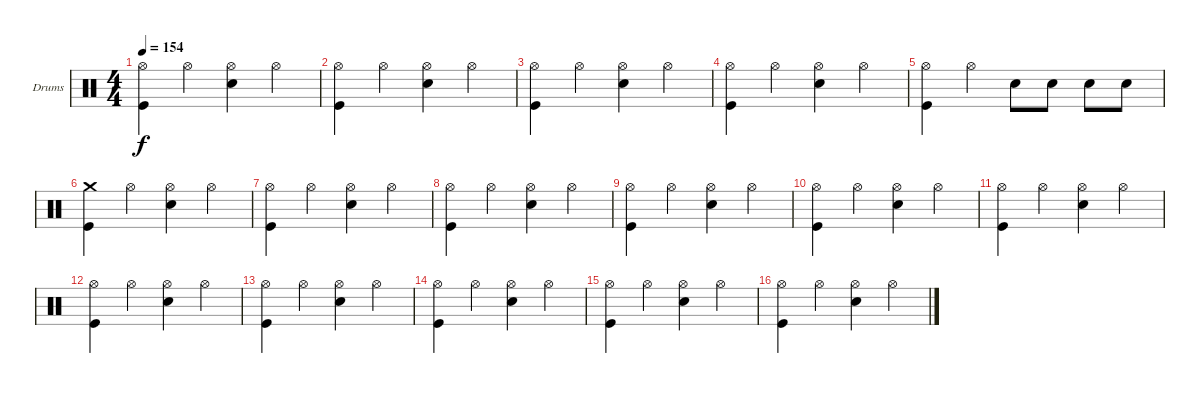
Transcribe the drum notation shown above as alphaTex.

\bracketExtendMode groupsimilarinstruments
\firstSystemTrackNameOrientation horizontal
\otherSystemsTrackNameOrientation horizontal
\track ("Drumkit (Christoph)" "Drums") {instrument percussion}
\staff {score}
\articulation defaults
\ts (4 4)
\tempo 154
\clef neutral
\ks c
("Hi-Hat (open)" "Kick (hit)").4{dy f} "Hi-Hat (open)".4 ("Hi-Hat (open)" "Snare (hit) 2").4 "Hi-Hat (open)".4 |
("Hi-Hat (open)" "Kick (hit)").4 "Hi-Hat (open)".4 ("Hi-Hat (open)" "Snare (hit) 2").4 "Hi-Hat (open)".4 |
("Hi-Hat (open)" "Kick (hit)").4 "Hi-Hat (open)".4 ("Hi-Hat (open)" "Snare (hit) 2").4 "Hi-Hat (open)".4 |
("Hi-Hat (open)" "Kick (hit)").4 "Hi-Hat (open)".4 ("Hi-Hat (open)" "Snare (hit) 2").4 "Hi-Hat (open)".4 |
("Hi-Hat (open)" "Kick (hit)").4 "Hi-Hat (open)".4 "Snare (hit) 2".8 "Snare (hit) 2".8 "Snare (hit) 2".8 "Snare (hit) 2".8 |
("Crash medium (hit)" "Kick (hit)").4 "Hi-Hat (open)".4 ("Hi-Hat (open)" "Snare (hit) 2").4 "Hi-Hat (open)".4 |
("Hi-Hat (open)" "Kick (hit)").4 "Hi-Hat (open)".4 ("Hi-Hat (open)" "Snare (hit) 2").4 "Hi-Hat (open)".4 |
("Hi-Hat (open)" "Kick (hit)").4 "Hi-Hat (open)".4 ("Hi-Hat (open)" "Snare (hit) 2").4 "Hi-Hat (open)".4 |
("Hi-Hat (open)" "Kick (hit)").4 "Hi-Hat (open)".4 ("Hi-Hat (open)" "Snare (hit) 2").4 "Hi-Hat (open)".4 |
("Hi-Hat (open)" "Kick (hit)").4 "Hi-Hat (open)".4 ("Hi-Hat (open)" "Snare (hit) 2").4 "Hi-Hat (open)".4 |
("Hi-Hat (open)" "Kick (hit)").4 "Hi-Hat (open)".4 ("Hi-Hat (open)" "Snare (hit) 2").4 "Hi-Hat (open)".4 |
("Hi-Hat (open)" "Kick (hit)").4 "Hi-Hat (open)".4 ("Hi-Hat (open)" "Snare (hit) 2").4 "Hi-Hat (open)".4 |
("Hi-Hat (open)" "Kick (hit)").4 "Hi-Hat (open)".4 ("Hi-Hat (open)" "Snare (hit) 2").4 "Hi-Hat (open)".4 |
("Hi-Hat (open)" "Kick (hit)").4 "Hi-Hat (open)".4 ("Hi-Hat (open)" "Snare (hit) 2").4 "Hi-Hat (open)".4 |
("Hi-Hat (open)" "Kick (hit)").4 "Hi-Hat (open)".4 ("Hi-Hat (open)" "Snare (hit) 2").4 "Hi-Hat (open)".4 |
("Hi-Hat (open)" "Kick (hit)").4 "Hi-Hat (open)".4 ("Hi-Hat (open)" "Snare (hit) 2").4 "Hi-Hat (open)".4
